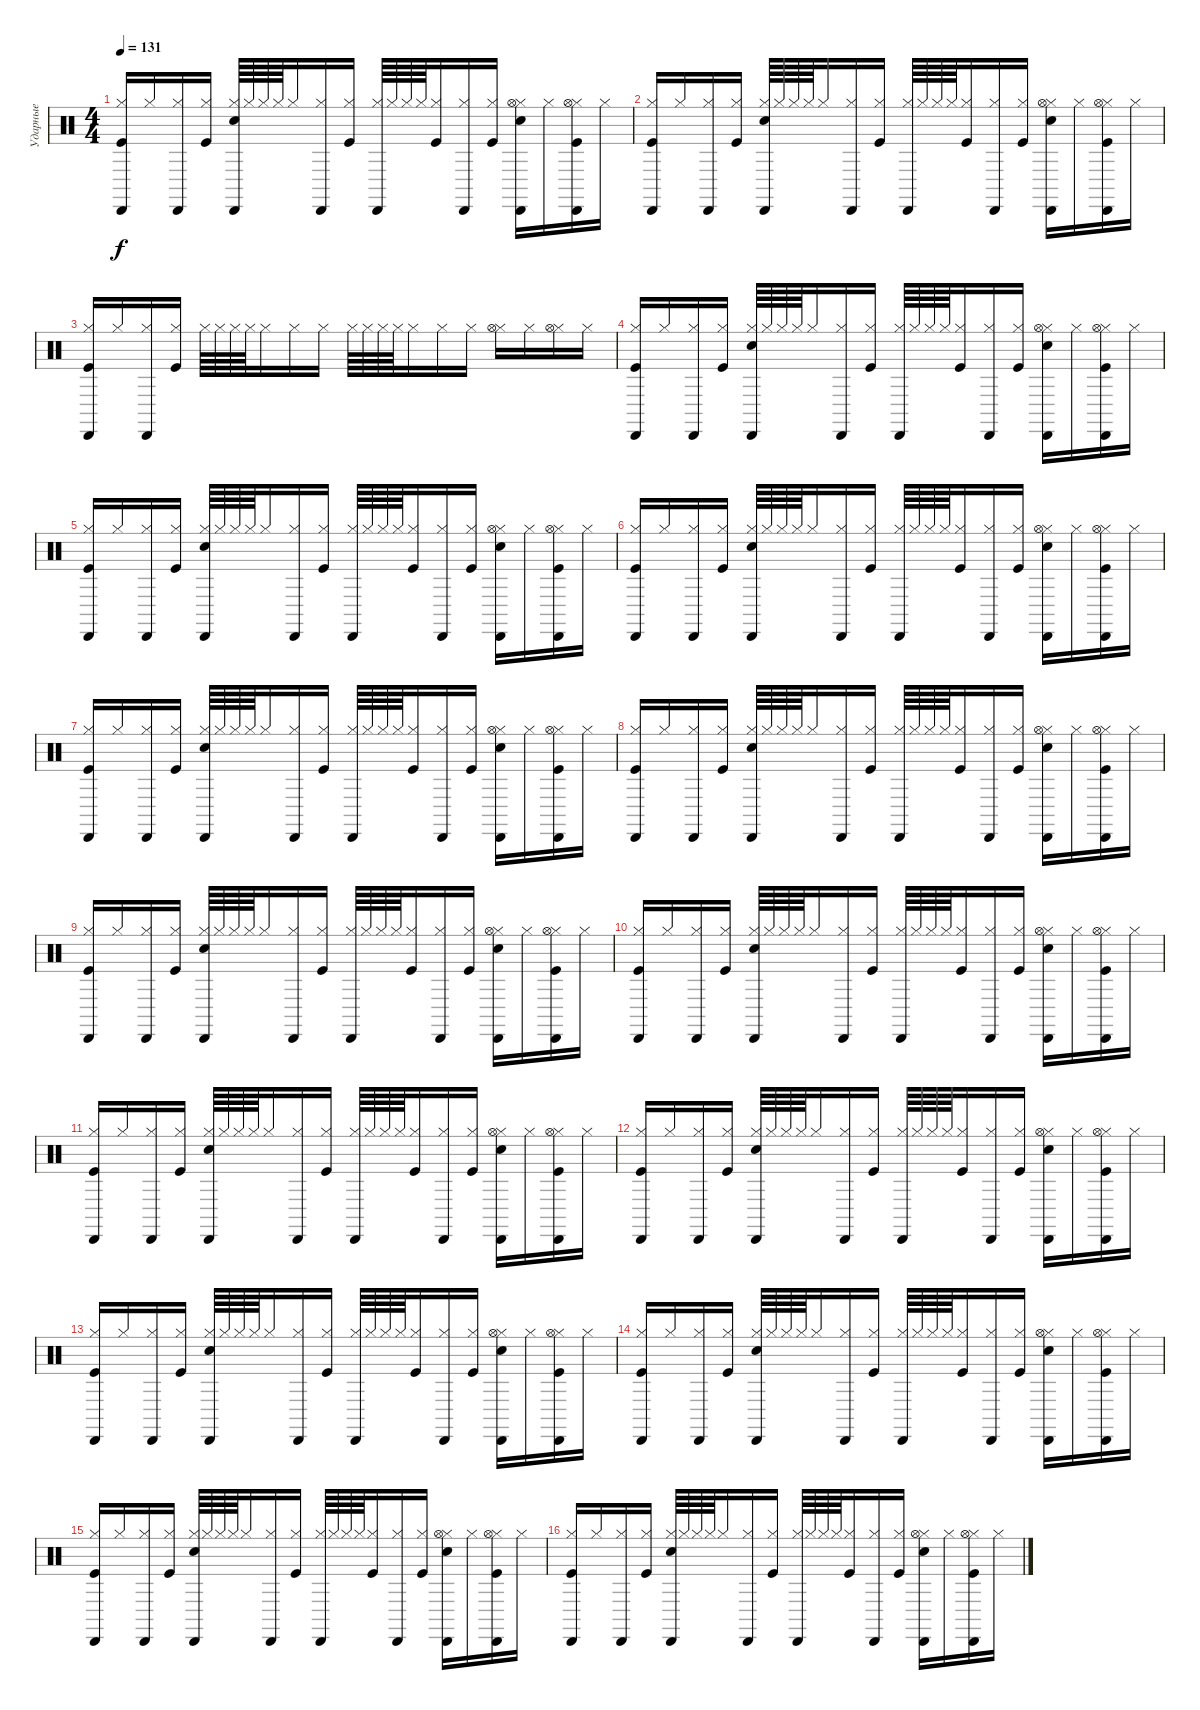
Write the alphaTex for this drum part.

\track ("Ударные" "Ударные") {instrument percussion}
\staff {score}
\articulation defaults
\ts (4 4)
\tempo 131
\clef neutral
\ks c
("Hi-Hat (closed)" "Kick (hit)" "Cabasa (hit)").16{dy f} "Hi-Hat (closed)".16 ("Hi-Hat (closed)" "Cabasa (hit)").16 ("Hi-Hat (closed)" "Kick (hit)").16 ("Hi-Hat (closed)" "Snare (hit) 2" "Cabasa (hit)").64 "Hi-Hat (closed)".64 "Hi-Hat (closed)".64 "Hi-Hat (closed)".64 "Hi-Hat (closed)".16 ("Hi-Hat (closed)" "Cabasa (hit)").16 ("Hi-Hat (closed)" "Kick (hit)").16 ("Hi-Hat (closed)" "Cabasa (hit)").64 "Hi-Hat (closed)".64 "Hi-Hat (closed)".64 "Hi-Hat (closed)".64 ("Hi-Hat (closed)" "Kick (hit)").16 ("Hi-Hat (closed)" "Cabasa (hit)").16 ("Hi-Hat (closed)" "Kick (hit)").16 ("Hi-Hat (closed)" "Hi-Hat (open)" "Snare (hit) 2" "Cabasa (hit)").16 "Hi-Hat (closed)".16 ("Hi-Hat (closed)" "Hi-Hat (open)" "Kick (hit)" "Cabasa (hit)").16 "Hi-Hat (closed)".16 |
("Hi-Hat (closed)" "Kick (hit)" "Cabasa (hit)").16 "Hi-Hat (closed)".16 ("Hi-Hat (closed)" "Cabasa (hit)").16 ("Hi-Hat (closed)" "Kick (hit)").16 ("Hi-Hat (closed)" "Snare (hit) 2" "Cabasa (hit)").64 "Hi-Hat (closed)".64 "Hi-Hat (closed)".64 "Hi-Hat (closed)".64 "Hi-Hat (closed)".16 ("Hi-Hat (closed)" "Cabasa (hit)").16 ("Hi-Hat (closed)" "Kick (hit)").16 ("Hi-Hat (closed)" "Cabasa (hit)").64 "Hi-Hat (closed)".64 "Hi-Hat (closed)".64 "Hi-Hat (closed)".64 ("Hi-Hat (closed)" "Kick (hit)").16 ("Hi-Hat (closed)" "Cabasa (hit)").16 ("Hi-Hat (closed)" "Kick (hit)").16 ("Hi-Hat (closed)" "Hi-Hat (open)" "Snare (hit) 2" "Cabasa (hit)").16 "Hi-Hat (closed)".16 ("Hi-Hat (closed)" "Hi-Hat (open)" "Kick (hit)" "Cabasa (hit)").16 "Hi-Hat (closed)".16 |
("Hi-Hat (closed)" "Kick (hit)" "Cabasa (hit)").16 "Hi-Hat (closed)".16 ("Hi-Hat (closed)" "Cabasa (hit)").16 ("Hi-Hat (closed)" "Kick (hit)").16 "Hi-Hat (closed)".64 "Hi-Hat (closed)".64 "Hi-Hat (closed)".64 "Hi-Hat (closed)".64 "Hi-Hat (closed)".16 "Hi-Hat (closed)".16 "Hi-Hat (closed)".16 "Hi-Hat (closed)".64 "Hi-Hat (closed)".64 "Hi-Hat (closed)".64 "Hi-Hat (closed)".64 "Hi-Hat (closed)".16 "Hi-Hat (closed)".16 "Hi-Hat (closed)".16 ("Hi-Hat (closed)" "Hi-Hat (open)").16 "Hi-Hat (closed)".16 ("Hi-Hat (closed)" "Hi-Hat (open)").16 "Hi-Hat (closed)".16 |
("Hi-Hat (closed)" "Kick (hit)" "Cabasa (hit)").16 "Hi-Hat (closed)".16 ("Hi-Hat (closed)" "Cabasa (hit)").16 ("Hi-Hat (closed)" "Kick (hit)").16 ("Hi-Hat (closed)" "Snare (hit) 2" "Cabasa (hit)").64 "Hi-Hat (closed)".64 "Hi-Hat (closed)".64 "Hi-Hat (closed)".64 "Hi-Hat (closed)".16 ("Hi-Hat (closed)" "Cabasa (hit)").16 ("Hi-Hat (closed)" "Kick (hit)").16 ("Hi-Hat (closed)" "Cabasa (hit)").64 "Hi-Hat (closed)".64 "Hi-Hat (closed)".64 "Hi-Hat (closed)".64 ("Hi-Hat (closed)" "Kick (hit)").16 ("Hi-Hat (closed)" "Cabasa (hit)").16 ("Hi-Hat (closed)" "Kick (hit)").16 ("Hi-Hat (closed)" "Hi-Hat (open)" "Snare (hit) 2" "Cabasa (hit)").16 "Hi-Hat (closed)".16 ("Hi-Hat (closed)" "Hi-Hat (open)" "Kick (hit)" "Cabasa (hit)").16 "Hi-Hat (closed)".16 |
("Hi-Hat (closed)" "Kick (hit)" "Cabasa (hit)").16 "Hi-Hat (closed)".16 ("Hi-Hat (closed)" "Cabasa (hit)").16 ("Hi-Hat (closed)" "Kick (hit)").16 ("Hi-Hat (closed)" "Snare (hit) 2" "Cabasa (hit)").64 "Hi-Hat (closed)".64 "Hi-Hat (closed)".64 "Hi-Hat (closed)".64 "Hi-Hat (closed)".16 ("Hi-Hat (closed)" "Cabasa (hit)").16 ("Hi-Hat (closed)" "Kick (hit)").16 ("Hi-Hat (closed)" "Cabasa (hit)").64 "Hi-Hat (closed)".64 "Hi-Hat (closed)".64 "Hi-Hat (closed)".64 ("Hi-Hat (closed)" "Kick (hit)").16 ("Hi-Hat (closed)" "Cabasa (hit)").16 ("Hi-Hat (closed)" "Kick (hit)").16 ("Hi-Hat (closed)" "Hi-Hat (open)" "Snare (hit) 2" "Cabasa (hit)").16 "Hi-Hat (closed)".16 ("Hi-Hat (closed)" "Hi-Hat (open)" "Kick (hit)" "Cabasa (hit)").16 "Hi-Hat (closed)".16 |
("Hi-Hat (closed)" "Kick (hit)" "Cabasa (hit)").16 "Hi-Hat (closed)".16 ("Hi-Hat (closed)" "Cabasa (hit)").16 ("Hi-Hat (closed)" "Kick (hit)").16 ("Hi-Hat (closed)" "Snare (hit) 2" "Cabasa (hit)").64 "Hi-Hat (closed)".64 "Hi-Hat (closed)".64 "Hi-Hat (closed)".64 "Hi-Hat (closed)".16 ("Hi-Hat (closed)" "Cabasa (hit)").16 ("Hi-Hat (closed)" "Kick (hit)").16 ("Hi-Hat (closed)" "Cabasa (hit)").64 "Hi-Hat (closed)".64 "Hi-Hat (closed)".64 "Hi-Hat (closed)".64 ("Hi-Hat (closed)" "Kick (hit)").16 ("Hi-Hat (closed)" "Cabasa (hit)").16 ("Hi-Hat (closed)" "Kick (hit)").16 ("Hi-Hat (closed)" "Hi-Hat (open)" "Snare (hit) 2" "Cabasa (hit)").16 "Hi-Hat (closed)".16 ("Hi-Hat (closed)" "Hi-Hat (open)" "Kick (hit)" "Cabasa (hit)").16 "Hi-Hat (closed)".16 |
("Hi-Hat (closed)" "Kick (hit)" "Cabasa (hit)").16 "Hi-Hat (closed)".16 ("Hi-Hat (closed)" "Cabasa (hit)").16 ("Hi-Hat (closed)" "Kick (hit)").16 ("Hi-Hat (closed)" "Snare (hit) 2" "Cabasa (hit)").64 "Hi-Hat (closed)".64 "Hi-Hat (closed)".64 "Hi-Hat (closed)".64 "Hi-Hat (closed)".16 ("Hi-Hat (closed)" "Cabasa (hit)").16 ("Hi-Hat (closed)" "Kick (hit)").16 ("Hi-Hat (closed)" "Cabasa (hit)").64 "Hi-Hat (closed)".64 "Hi-Hat (closed)".64 "Hi-Hat (closed)".64 ("Hi-Hat (closed)" "Kick (hit)").16 ("Hi-Hat (closed)" "Cabasa (hit)").16 ("Hi-Hat (closed)" "Kick (hit)").16 ("Hi-Hat (closed)" "Hi-Hat (open)" "Snare (hit) 2" "Cabasa (hit)").16 "Hi-Hat (closed)".16 ("Hi-Hat (closed)" "Hi-Hat (open)" "Kick (hit)" "Cabasa (hit)").16 "Hi-Hat (closed)".16 |
("Hi-Hat (closed)" "Kick (hit)" "Cabasa (hit)").16 "Hi-Hat (closed)".16 ("Hi-Hat (closed)" "Cabasa (hit)").16 ("Hi-Hat (closed)" "Kick (hit)").16 ("Hi-Hat (closed)" "Snare (hit) 2" "Cabasa (hit)").64 "Hi-Hat (closed)".64 "Hi-Hat (closed)".64 "Hi-Hat (closed)".64 "Hi-Hat (closed)".16 ("Hi-Hat (closed)" "Cabasa (hit)").16 ("Hi-Hat (closed)" "Kick (hit)").16 ("Hi-Hat (closed)" "Cabasa (hit)").64 "Hi-Hat (closed)".64 "Hi-Hat (closed)".64 "Hi-Hat (closed)".64 ("Hi-Hat (closed)" "Kick (hit)").16 ("Hi-Hat (closed)" "Cabasa (hit)").16 ("Hi-Hat (closed)" "Kick (hit)").16 ("Hi-Hat (closed)" "Hi-Hat (open)" "Snare (hit) 2" "Cabasa (hit)").16 "Hi-Hat (closed)".16 ("Hi-Hat (closed)" "Hi-Hat (open)" "Kick (hit)" "Cabasa (hit)").16 "Hi-Hat (closed)".16 |
("Hi-Hat (closed)" "Kick (hit)" "Cabasa (hit)").16 "Hi-Hat (closed)".16 ("Hi-Hat (closed)" "Cabasa (hit)").16 ("Hi-Hat (closed)" "Kick (hit)").16 ("Hi-Hat (closed)" "Snare (hit) 2" "Cabasa (hit)").64 "Hi-Hat (closed)".64 "Hi-Hat (closed)".64 "Hi-Hat (closed)".64 "Hi-Hat (closed)".16 ("Hi-Hat (closed)" "Cabasa (hit)").16 ("Hi-Hat (closed)" "Kick (hit)").16 ("Hi-Hat (closed)" "Cabasa (hit)").64 "Hi-Hat (closed)".64 "Hi-Hat (closed)".64 "Hi-Hat (closed)".64 ("Hi-Hat (closed)" "Kick (hit)").16 ("Hi-Hat (closed)" "Cabasa (hit)").16 ("Hi-Hat (closed)" "Kick (hit)").16 ("Hi-Hat (closed)" "Hi-Hat (open)" "Snare (hit) 2" "Cabasa (hit)").16 "Hi-Hat (closed)".16 ("Hi-Hat (closed)" "Hi-Hat (open)" "Kick (hit)" "Cabasa (hit)").16 "Hi-Hat (closed)".16 |
("Hi-Hat (closed)" "Kick (hit)" "Cabasa (hit)").16 "Hi-Hat (closed)".16 ("Hi-Hat (closed)" "Cabasa (hit)").16 ("Hi-Hat (closed)" "Kick (hit)").16 ("Hi-Hat (closed)" "Snare (hit) 2" "Cabasa (hit)").64 "Hi-Hat (closed)".64 "Hi-Hat (closed)".64 "Hi-Hat (closed)".64 "Hi-Hat (closed)".16 ("Hi-Hat (closed)" "Cabasa (hit)").16 ("Hi-Hat (closed)" "Kick (hit)").16 ("Hi-Hat (closed)" "Cabasa (hit)").64 "Hi-Hat (closed)".64 "Hi-Hat (closed)".64 "Hi-Hat (closed)".64 ("Hi-Hat (closed)" "Kick (hit)").16 ("Hi-Hat (closed)" "Cabasa (hit)").16 ("Hi-Hat (closed)" "Kick (hit)").16 ("Hi-Hat (closed)" "Hi-Hat (open)" "Snare (hit) 2" "Cabasa (hit)").16 "Hi-Hat (closed)".16 ("Hi-Hat (closed)" "Hi-Hat (open)" "Kick (hit)" "Cabasa (hit)").16 "Hi-Hat (closed)".16 |
("Hi-Hat (closed)" "Kick (hit)" "Cabasa (hit)").16 "Hi-Hat (closed)".16 ("Hi-Hat (closed)" "Cabasa (hit)").16 ("Hi-Hat (closed)" "Kick (hit)").16 ("Hi-Hat (closed)" "Snare (hit) 2" "Cabasa (hit)").64 "Hi-Hat (closed)".64 "Hi-Hat (closed)".64 "Hi-Hat (closed)".64 "Hi-Hat (closed)".16 ("Hi-Hat (closed)" "Cabasa (hit)").16 ("Hi-Hat (closed)" "Kick (hit)").16 ("Hi-Hat (closed)" "Cabasa (hit)").64 "Hi-Hat (closed)".64 "Hi-Hat (closed)".64 "Hi-Hat (closed)".64 ("Hi-Hat (closed)" "Kick (hit)").16 ("Hi-Hat (closed)" "Cabasa (hit)").16 ("Hi-Hat (closed)" "Kick (hit)").16 ("Hi-Hat (closed)" "Hi-Hat (open)" "Snare (hit) 2" "Cabasa (hit)").16 "Hi-Hat (closed)".16 ("Hi-Hat (closed)" "Hi-Hat (open)" "Kick (hit)" "Cabasa (hit)").16 "Hi-Hat (closed)".16 |
("Hi-Hat (closed)" "Kick (hit)" "Cabasa (hit)").16 "Hi-Hat (closed)".16 ("Hi-Hat (closed)" "Cabasa (hit)").16 ("Hi-Hat (closed)" "Kick (hit)").16 ("Hi-Hat (closed)" "Snare (hit) 2" "Cabasa (hit)").64 "Hi-Hat (closed)".64 "Hi-Hat (closed)".64 "Hi-Hat (closed)".64 "Hi-Hat (closed)".16 ("Hi-Hat (closed)" "Cabasa (hit)").16 ("Hi-Hat (closed)" "Kick (hit)").16 ("Hi-Hat (closed)" "Cabasa (hit)").64 "Hi-Hat (closed)".64 "Hi-Hat (closed)".64 "Hi-Hat (closed)".64 ("Hi-Hat (closed)" "Kick (hit)").16 ("Hi-Hat (closed)" "Cabasa (hit)").16 ("Hi-Hat (closed)" "Kick (hit)").16 ("Hi-Hat (closed)" "Hi-Hat (open)" "Snare (hit) 2" "Cabasa (hit)").16 "Hi-Hat (closed)".16 ("Hi-Hat (closed)" "Hi-Hat (open)" "Kick (hit)" "Cabasa (hit)").16 "Hi-Hat (closed)".16 |
("Hi-Hat (closed)" "Kick (hit)" "Cabasa (hit)").16 "Hi-Hat (closed)".16 ("Hi-Hat (closed)" "Cabasa (hit)").16 ("Hi-Hat (closed)" "Kick (hit)").16 ("Hi-Hat (closed)" "Snare (hit) 2" "Cabasa (hit)").64 "Hi-Hat (closed)".64 "Hi-Hat (closed)".64 "Hi-Hat (closed)".64 "Hi-Hat (closed)".16 ("Hi-Hat (closed)" "Cabasa (hit)").16 ("Hi-Hat (closed)" "Kick (hit)").16 ("Hi-Hat (closed)" "Cabasa (hit)").64 "Hi-Hat (closed)".64 "Hi-Hat (closed)".64 "Hi-Hat (closed)".64 ("Hi-Hat (closed)" "Kick (hit)").16 ("Hi-Hat (closed)" "Cabasa (hit)").16 ("Hi-Hat (closed)" "Kick (hit)").16 ("Hi-Hat (closed)" "Hi-Hat (open)" "Snare (hit) 2" "Cabasa (hit)").16 "Hi-Hat (closed)".16 ("Hi-Hat (closed)" "Hi-Hat (open)" "Kick (hit)" "Cabasa (hit)").16 "Hi-Hat (closed)".16 |
("Hi-Hat (closed)" "Kick (hit)" "Cabasa (hit)").16 "Hi-Hat (closed)".16 ("Hi-Hat (closed)" "Cabasa (hit)").16 ("Hi-Hat (closed)" "Kick (hit)").16 ("Hi-Hat (closed)" "Snare (hit) 2" "Cabasa (hit)").64 "Hi-Hat (closed)".64 "Hi-Hat (closed)".64 "Hi-Hat (closed)".64 "Hi-Hat (closed)".16 ("Hi-Hat (closed)" "Cabasa (hit)").16 ("Hi-Hat (closed)" "Kick (hit)").16 ("Hi-Hat (closed)" "Cabasa (hit)").64 "Hi-Hat (closed)".64 "Hi-Hat (closed)".64 "Hi-Hat (closed)".64 ("Hi-Hat (closed)" "Kick (hit)").16 ("Hi-Hat (closed)" "Cabasa (hit)").16 ("Hi-Hat (closed)" "Kick (hit)").16 ("Hi-Hat (closed)" "Hi-Hat (open)" "Snare (hit) 2" "Cabasa (hit)").16 "Hi-Hat (closed)".16 ("Hi-Hat (closed)" "Hi-Hat (open)" "Kick (hit)" "Cabasa (hit)").16 "Hi-Hat (closed)".16 |
("Hi-Hat (closed)" "Kick (hit)" "Cabasa (hit)").16 "Hi-Hat (closed)".16 ("Hi-Hat (closed)" "Cabasa (hit)").16 ("Hi-Hat (closed)" "Kick (hit)").16 ("Hi-Hat (closed)" "Snare (hit) 2" "Cabasa (hit)").64 "Hi-Hat (closed)".64 "Hi-Hat (closed)".64 "Hi-Hat (closed)".64 "Hi-Hat (closed)".16 ("Hi-Hat (closed)" "Cabasa (hit)").16 ("Hi-Hat (closed)" "Kick (hit)").16 ("Hi-Hat (closed)" "Cabasa (hit)").64 "Hi-Hat (closed)".64 "Hi-Hat (closed)".64 "Hi-Hat (closed)".64 ("Hi-Hat (closed)" "Kick (hit)").16 ("Hi-Hat (closed)" "Cabasa (hit)").16 ("Hi-Hat (closed)" "Kick (hit)").16 ("Hi-Hat (closed)" "Hi-Hat (open)" "Snare (hit) 2" "Cabasa (hit)").16 "Hi-Hat (closed)".16 ("Hi-Hat (closed)" "Hi-Hat (open)" "Kick (hit)" "Cabasa (hit)").16 "Hi-Hat (closed)".16 |
("Hi-Hat (closed)" "Kick (hit)" "Cabasa (hit)").16 "Hi-Hat (closed)".16 ("Hi-Hat (closed)" "Cabasa (hit)").16 ("Hi-Hat (closed)" "Kick (hit)").16 ("Hi-Hat (closed)" "Snare (hit) 2" "Cabasa (hit)").64 "Hi-Hat (closed)".64 "Hi-Hat (closed)".64 "Hi-Hat (closed)".64 "Hi-Hat (closed)".16 ("Hi-Hat (closed)" "Cabasa (hit)").16 ("Hi-Hat (closed)" "Kick (hit)").16 ("Hi-Hat (closed)" "Cabasa (hit)").64 "Hi-Hat (closed)".64 "Hi-Hat (closed)".64 "Hi-Hat (closed)".64 ("Hi-Hat (closed)" "Kick (hit)").16 ("Hi-Hat (closed)" "Cabasa (hit)").16 ("Hi-Hat (closed)" "Kick (hit)").16 ("Hi-Hat (closed)" "Hi-Hat (open)" "Snare (hit) 2" "Cabasa (hit)").16 "Hi-Hat (closed)".16 ("Hi-Hat (closed)" "Hi-Hat (open)" "Kick (hit)" "Cabasa (hit)").16 "Hi-Hat (closed)".16
